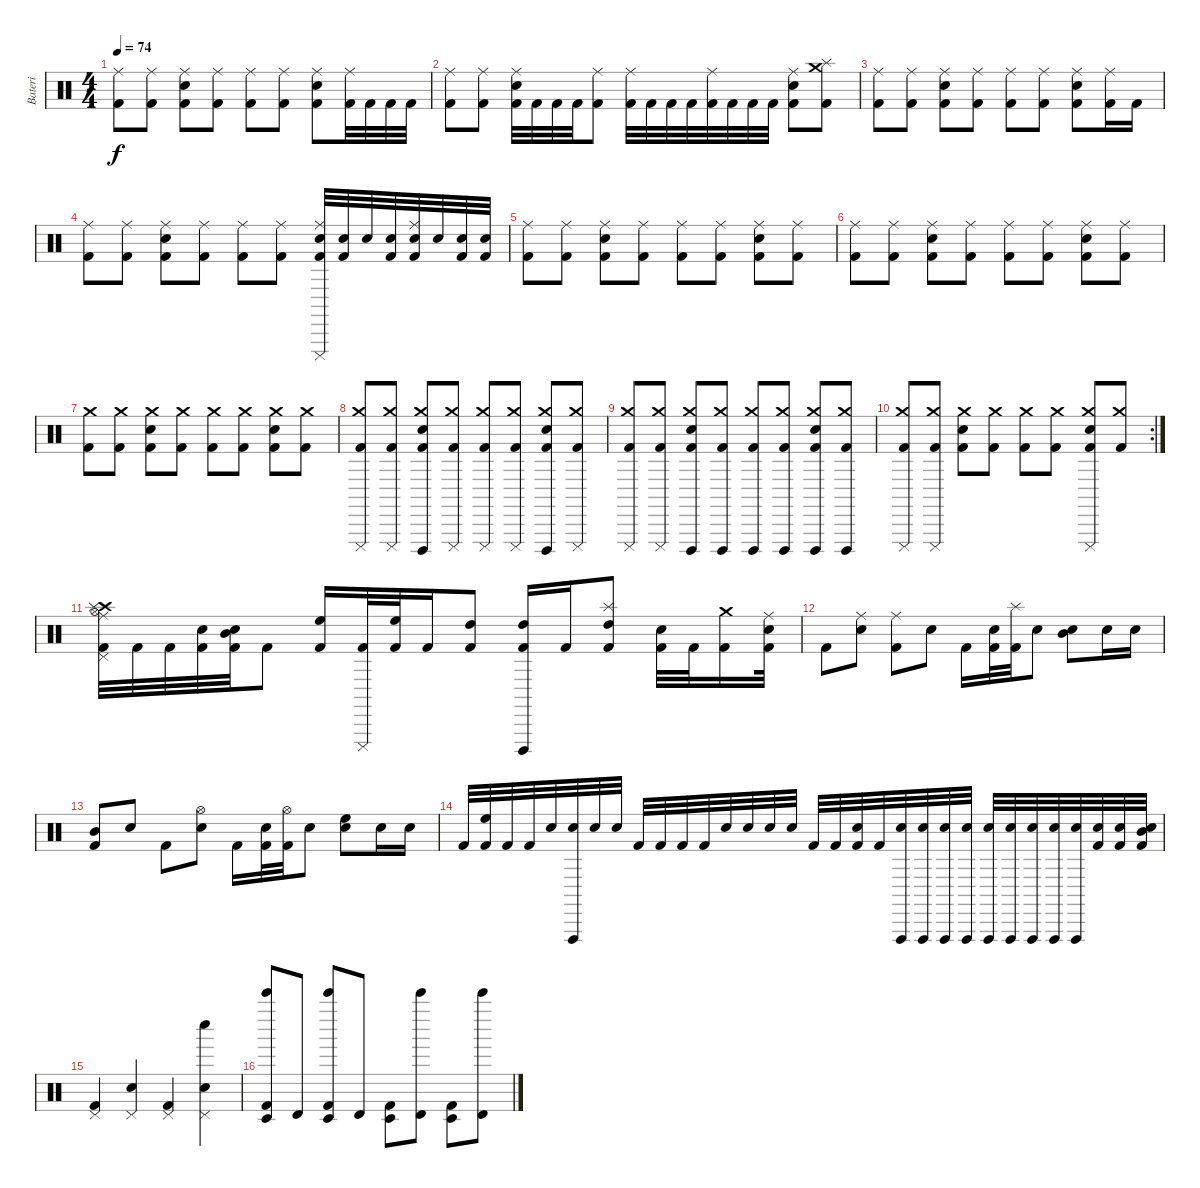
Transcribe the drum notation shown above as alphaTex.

\track ("Bateri" "Bateri") {instrument percussion}
\staff {score}
\articulation defaults
\ts (4 4)
\tempo 74
\clef neutral
\ks c
("Ride (middle)" "Kick (hit) 2").8{dy f} ("Ride (middle)" "Kick (hit) 2").8 ("Ride (middle)" "Electric Snare (hit)" "Kick (hit) 2").8 ("Ride (middle)" "Kick (hit) 2").8 ("Ride (middle)" "Kick (hit) 2").8 ("Ride (middle)" "Kick (hit) 2").8 ("Ride (middle)" "Electric Snare (hit)" "Kick (hit) 2").8 ("Ride (middle)" "Kick (hit) 2").32 "Kick (hit) 2".32 "Kick (hit) 2".32 "Kick (hit) 2".32 |
("Ride (middle)" "Kick (hit) 2").8 ("Ride (middle)" "Kick (hit) 2").8 ("Ride (middle)" "Electric Snare (hit)" "Kick (hit) 2").32 "Kick (hit) 2".32 "Kick (hit) 2".32 "Kick (hit) 2".32 ("Ride (middle)" "Kick (hit) 2").8 ("Ride (middle)" "Kick (hit) 2").32 "Kick (hit) 2".32 "Kick (hit) 2".32 "Kick (hit) 2".32 ("Ride (middle)" "Kick (hit) 2").32 "Kick (hit) 2".32 "Kick (hit) 2".32 "Kick (hit) 2".32 ("Ride (middle)" "Electric Snare (hit)" "Kick (hit) 2").8 ("Crash medium (hit)" "Splash (hit)" "Kick (hit) 2").8 |
("Ride (middle)" "Kick (hit) 2").8 ("Ride (middle)" "Kick (hit) 2").8 ("Ride (middle)" "Electric Snare (hit)" "Kick (hit) 2").8 ("Ride (middle)" "Kick (hit) 2").8 ("Ride (middle)" "Kick (hit) 2").8 ("Ride (middle)" "Kick (hit) 2").8 ("Ride (middle)" "Electric Snare (hit)" "Kick (hit) 2").8 ("Ride (middle)" "Kick (hit) 2").16 "Kick (hit) 2".16 |
("Ride (middle)" "Kick (hit) 2").8 ("Ride (middle)" "Kick (hit) 2").8 ("Ride (middle)" "Electric Snare (hit)" "Kick (hit) 2").8 ("Ride (middle)" "Kick (hit) 2").8 ("Ride (middle)" "Kick (hit) 2").8 ("Ride (middle)" "Kick (hit) 2").8 ("Ride (middle)" "Cuica (mute)" "Electric Snare (hit)" "Kick (hit) 2").32 ("Electric Snare (hit)" "Kick (hit) 2").32 "Electric Snare (hit)".32 ("Electric Snare (hit)" "Kick (hit) 2").32 ("Ride (middle)" "Electric Snare (hit)" "Kick (hit) 2").32 "Electric Snare (hit)".32 ("Electric Snare (hit)" "Kick (hit) 2").32 ("Electric Snare (hit)" "Kick (hit) 2").32 |
("Ride (middle)" "Kick (hit) 2").8 ("Ride (middle)" "Kick (hit) 2").8 ("Ride (middle)" "Electric Snare (hit)" "Kick (hit) 2").8 ("Ride (middle)" "Kick (hit) 2").8 ("Ride (middle)" "Kick (hit) 2").8 ("Ride (middle)" "Kick (hit) 2").8 ("Ride (middle)" "Electric Snare (hit)" "Kick (hit) 2").8 ("Ride (middle)" "Kick (hit) 2").8 |
("Ride (middle)" "Kick (hit) 2").8 ("Ride (middle)" "Kick (hit) 2").8 ("Ride (middle)" "Electric Snare (hit)" "Kick (hit) 2").8 ("Ride (middle)" "Kick (hit) 2").8 ("Ride (middle)" "Kick (hit) 2").8 ("Ride (middle)" "Kick (hit) 2").8 ("Ride (middle)" "Electric Snare (hit)" "Kick (hit) 2").8 ("Ride (middle)" "Kick (hit) 2").8 |
("Crash medium (hit)" "Kick (hit) 2").8 ("Crash medium (hit)" "Kick (hit) 2").8 ("Crash medium (hit)" "Electric Snare (hit)" "Kick (hit) 2").8 ("Crash medium (hit)" "Kick (hit) 2").8 ("Crash medium (hit)" "Kick (hit) 2").8 ("Crash medium (hit)" "Kick (hit) 2").8 ("Crash medium (hit)" "Electric Snare (hit)" "Kick (hit) 2").8 ("Crash medium (hit)" "Kick (hit) 2").8 |
("Crash medium (hit)" "Cuica (mute)" "Kick (hit) 2").8 ("Crash medium (hit)" "Cuica (mute)" "Kick (hit) 2").8 ("Crash medium (hit)" "Cuica (open)" "Electric Snare (hit)" "Kick (hit) 2").8 ("Crash medium (hit)" "Cuica (mute)" "Kick (hit) 2").8 ("Crash medium (hit)" "Cuica (mute)" "Kick (hit) 2").8 ("Crash medium (hit)" "Cuica (mute)" "Kick (hit) 2").8 ("Crash medium (hit)" "Cuica (open)" "Electric Snare (hit)" "Kick (hit) 2").8 ("Crash medium (hit)" "Cuica (mute)" "Kick (hit) 2").8 |
("Crash medium (hit)" "Cuica (mute)" "Kick (hit) 2").8 ("Crash medium (hit)" "Cuica (mute)" "Kick (hit) 2").8 ("Crash medium (hit)" "Cuica (open)" "Electric Snare (hit)" "Kick (hit) 2").8 ("Crash medium (hit)" "Cuica (open)" "Kick (hit) 2").8 ("Crash medium (hit)" "Cuica (open)" "Kick (hit) 2").8 ("Crash medium (hit)" "Cuica (open)" "Kick (hit) 2").8 ("Crash medium (hit)" "Cuica (open)" "Electric Snare (hit)" "Kick (hit) 2").8 ("Crash medium (hit)" "Cuica (open)" "Kick (hit) 2").8 |
\rc 2
("Crash medium (hit)" "Cuica (mute)" "Kick (hit) 2").8 ("Crash medium (hit)" "Cuica (mute)" "Kick (hit) 2").8 ("Crash medium (hit)" "Electric Snare (hit)" "Kick (hit) 2").8 ("Crash medium (hit)" "Kick (hit) 2").8 ("Crash medium (hit)" "Kick (hit) 2").8 ("Crash medium (hit)" "Kick (hit) 2").8 ("Crash medium (hit)" "Cuica (mute)" "Electric Snare (hit)" "Kick (hit) 2").8 ("Crash medium (hit)" "Kick (hit) 2").8 |
("Crash high (hit)" "Splash (hit)" "Pedal Hi-Hat (hit)" "Ride (middle)" "Hi-Hat (open)" "Kick (hit) 2").32 "Kick (hit) 2".32 "Kick (hit) 2".32 ("Electric Snare (hit)" "Kick (hit) 2").32 ("Electric Snare (hit)" "Mid Tom (hit)" "Kick (hit) 2").32 "Kick (hit) 2".8 ("High Floor Tom (hit)" "Kick (hit) 2").16 ("Cuica (mute)" "Kick (hit) 2").32 ("High Floor Tom (hit)" "Kick (hit) 2").32 "Kick (hit) 2".16 ("High Tom (hit)" "Kick (hit) 2").8 ("High Tom (hit)" "Cuica (open)" "Kick (hit) 2").16 "Kick (hit) 2".16 ("High Tom (hit)" "Splash (hit)" "Kick (hit) 2").8 ("Electric Snare (hit)" "Kick (hit) 2").32 "Kick (hit) 2".32 ("Crash medium (hit)" "Kick (hit) 2").16 ("Electric Snare (hit)" "Ride (middle)" "Kick (hit) 2").32 |
"Kick (hit) 2".8 ("Ride (middle)" "Electric Snare (hit)").8 ("Ride (middle)" "Kick (hit) 2").8 "Electric Snare (hit)".8 "Kick (hit) 2".16 ("Electric Snare (hit)" "Kick (hit) 2").32 ("Splash (hit)" "Kick (hit) 2").32 "Electric Snare (hit)".8 ("Mid Tom (hit)" "Electric Snare (hit)").8 "Electric Snare (hit)".16 "Electric Snare (hit)".16 |
("Mid Tom (hit)" "Kick (hit) 2").8 "Electric Snare (hit)".8 "Kick (hit) 2".8 ("Hi-Hat (open)" "Electric Snare (hit)").8 "Kick (hit) 2".16 ("Electric Snare (hit)" "Kick (hit) 2").32 ("Hi-Hat (open)" "Kick (hit) 2").32 "Electric Snare (hit)".8 ("High Floor Tom (hit)" "Electric Snare (hit)").8 "Electric Snare (hit)".16 "Electric Snare (hit)".16 |
"Kick (hit) 2".32 ("High Floor Tom (hit)" "Kick (hit) 2").32 "Kick (hit) 2".32 "Kick (hit) 2".32 "Electric Snare (hit)".32 ("Vibraslap (hit)" "Electric Snare (hit)").32 "Electric Snare (hit)".32 "Electric Snare (hit)".32 "Kick (hit) 2".32 "Kick (hit) 2".32 "Kick (hit) 2".32 "Kick (hit) 2".32 "Electric Snare (hit)".32 "Electric Snare (hit)".32 "Electric Snare (hit)".32 "Electric Snare (hit)".32 "Kick (hit) 2".32 "Kick (hit) 2".32 ("Electric Snare (hit)" "Kick (hit) 2").32 "Kick (hit) 2".32 ("Vibraslap (hit)" "Electric Snare (hit)").32 ("Vibraslap (hit)" "Electric Snare (hit)").32 ("Vibraslap (hit)" "Electric Snare (hit)").32 ("Vibraslap (hit)" "Electric Snare (hit)").32 ("Vibraslap (hit)" "Electric Snare (hit)").32 ("Vibraslap (hit)" "Electric Snare (hit)").32 ("Vibraslap (hit)" "Electric Snare (hit)").32 ("Vibraslap (hit)" "Electric Snare (hit)").32 ("Vibraslap (hit)" "Electric Snare (hit)").32 ("Kick (hit) 2" "Electric Snare (hit)").32 ("Kick (hit) 2" "Electric Snare (hit)").32 ("Kick (hit) 2" "Electric Snare (hit)" "Mid Tom (hit)").32 |
("Pedal Hi-Hat (hit)" "Kick (hit) 2").4 ("Electric Snare (hit)" "Pedal Hi-Hat (hit)").4 ("Pedal Hi-Hat (hit)" "Kick (hit) 2").4 ("Whistle low (hit)" "Electric Snare (hit)" "Pedal Hi-Hat (hit)").4 |
("Bell Tree (hit)" "Timbale low (hit)" "Kick (hit) 2").8 "Timbale high (hit)".8 ("Bell Tree (hit)" "Timbale low (hit)" "Kick (hit) 2").8 "Timbale high (hit)".8 ("Kick (hit) 2" "Timbale low (hit)").8 ("Timbale high (hit)" "Bell Tree (hit)").8 ("Kick (hit) 2" "Timbale low (hit)").8 ("Timbale high (hit)" "Bell Tree (hit)").8
